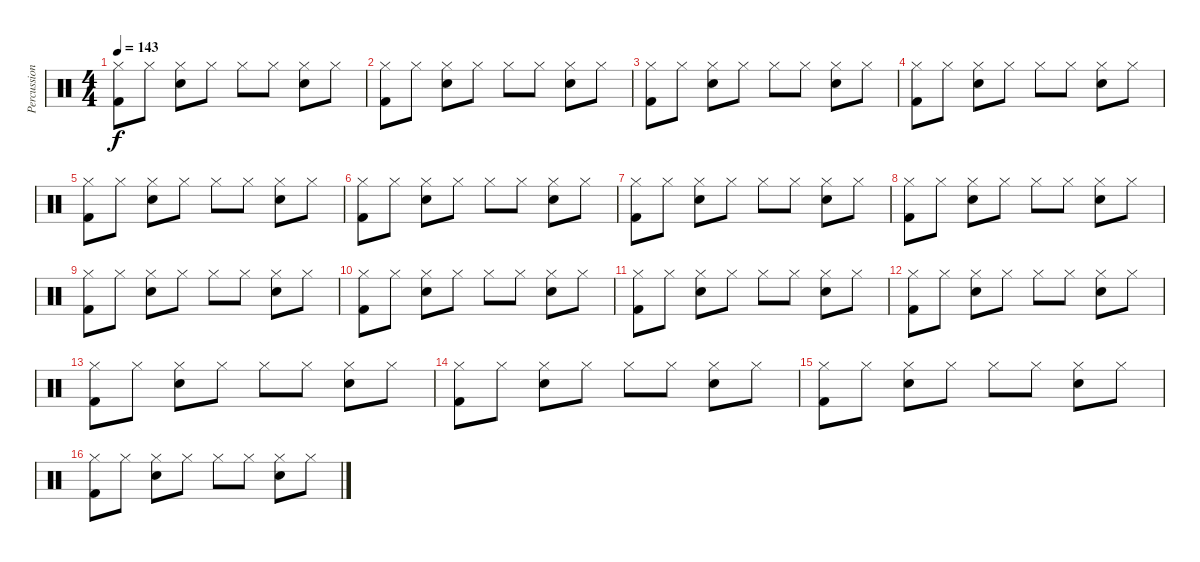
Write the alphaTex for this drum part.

\track ("Percussion" "Percussion") {instrument percussion}
\staff {score}
\articulation defaults
\ts (4 4)
\tempo 143
\clef neutral
\ks c
("Hi-Hat (closed)" "Kick (hit) 2").8{dy f} "Hi-Hat (closed)".8 ("Hi-Hat (closed)" "Electric Snare (hit)").8 "Hi-Hat (closed)".8 "Hi-Hat (closed)".8 "Hi-Hat (closed)".8 ("Hi-Hat (closed)" "Electric Snare (hit)").8 "Hi-Hat (closed)".8 |
("Hi-Hat (closed)" "Kick (hit) 2").8 "Hi-Hat (closed)".8 ("Hi-Hat (closed)" "Electric Snare (hit)").8 "Hi-Hat (closed)".8 "Hi-Hat (closed)".8 "Hi-Hat (closed)".8 ("Hi-Hat (closed)" "Electric Snare (hit)").8 "Hi-Hat (closed)".8 |
("Hi-Hat (closed)" "Kick (hit) 2").8 "Hi-Hat (closed)".8 ("Hi-Hat (closed)" "Electric Snare (hit)").8 "Hi-Hat (closed)".8 "Hi-Hat (closed)".8 "Hi-Hat (closed)".8 ("Hi-Hat (closed)" "Electric Snare (hit)").8 "Hi-Hat (closed)".8 |
("Hi-Hat (closed)" "Kick (hit) 2").8 "Hi-Hat (closed)".8 ("Hi-Hat (closed)" "Electric Snare (hit)").8 "Hi-Hat (closed)".8 "Hi-Hat (closed)".8 "Hi-Hat (closed)".8 ("Hi-Hat (closed)" "Electric Snare (hit)").8 "Hi-Hat (closed)".8 |
("Hi-Hat (closed)" "Kick (hit) 2").8 "Hi-Hat (closed)".8 ("Hi-Hat (closed)" "Electric Snare (hit)").8 "Hi-Hat (closed)".8 "Hi-Hat (closed)".8 "Hi-Hat (closed)".8 ("Hi-Hat (closed)" "Electric Snare (hit)").8 "Hi-Hat (closed)".8 |
("Hi-Hat (closed)" "Kick (hit) 2").8 "Hi-Hat (closed)".8 ("Hi-Hat (closed)" "Electric Snare (hit)").8 "Hi-Hat (closed)".8 "Hi-Hat (closed)".8 "Hi-Hat (closed)".8 ("Hi-Hat (closed)" "Electric Snare (hit)").8 "Hi-Hat (closed)".8 |
("Hi-Hat (closed)" "Kick (hit) 2").8 "Hi-Hat (closed)".8 ("Hi-Hat (closed)" "Electric Snare (hit)").8 "Hi-Hat (closed)".8 "Hi-Hat (closed)".8 "Hi-Hat (closed)".8 ("Hi-Hat (closed)" "Electric Snare (hit)").8 "Hi-Hat (closed)".8 |
("Hi-Hat (closed)" "Kick (hit) 2").8 "Hi-Hat (closed)".8 ("Hi-Hat (closed)" "Electric Snare (hit)").8 "Hi-Hat (closed)".8 "Hi-Hat (closed)".8 "Hi-Hat (closed)".8 ("Hi-Hat (closed)" "Electric Snare (hit)").8 "Hi-Hat (closed)".8 |
("Hi-Hat (closed)" "Kick (hit) 2").8 "Hi-Hat (closed)".8 ("Hi-Hat (closed)" "Electric Snare (hit)").8 "Hi-Hat (closed)".8 "Hi-Hat (closed)".8 "Hi-Hat (closed)".8 ("Hi-Hat (closed)" "Electric Snare (hit)").8 "Hi-Hat (closed)".8 |
("Hi-Hat (closed)" "Kick (hit) 2").8 "Hi-Hat (closed)".8 ("Hi-Hat (closed)" "Electric Snare (hit)").8 "Hi-Hat (closed)".8 "Hi-Hat (closed)".8 "Hi-Hat (closed)".8 ("Hi-Hat (closed)" "Electric Snare (hit)").8 "Hi-Hat (closed)".8 |
("Hi-Hat (closed)" "Kick (hit) 2").8 "Hi-Hat (closed)".8 ("Hi-Hat (closed)" "Electric Snare (hit)").8 "Hi-Hat (closed)".8 "Hi-Hat (closed)".8 "Hi-Hat (closed)".8 ("Hi-Hat (closed)" "Electric Snare (hit)").8 "Hi-Hat (closed)".8 |
("Hi-Hat (closed)" "Kick (hit) 2").8 "Hi-Hat (closed)".8 ("Hi-Hat (closed)" "Electric Snare (hit)").8 "Hi-Hat (closed)".8 "Hi-Hat (closed)".8 "Hi-Hat (closed)".8 ("Hi-Hat (closed)" "Electric Snare (hit)").8 "Hi-Hat (closed)".8 |
("Hi-Hat (closed)" "Kick (hit) 2").8 "Hi-Hat (closed)".8 ("Hi-Hat (closed)" "Electric Snare (hit)").8 "Hi-Hat (closed)".8 "Hi-Hat (closed)".8 "Hi-Hat (closed)".8 ("Hi-Hat (closed)" "Electric Snare (hit)").8 "Hi-Hat (closed)".8 |
("Hi-Hat (closed)" "Kick (hit) 2").8 "Hi-Hat (closed)".8 ("Hi-Hat (closed)" "Electric Snare (hit)").8 "Hi-Hat (closed)".8 "Hi-Hat (closed)".8 "Hi-Hat (closed)".8 ("Hi-Hat (closed)" "Electric Snare (hit)").8 "Hi-Hat (closed)".8 |
("Hi-Hat (closed)" "Kick (hit) 2").8 "Hi-Hat (closed)".8 ("Hi-Hat (closed)" "Electric Snare (hit)").8 "Hi-Hat (closed)".8 "Hi-Hat (closed)".8 "Hi-Hat (closed)".8 ("Hi-Hat (closed)" "Electric Snare (hit)").8 "Hi-Hat (closed)".8 |
("Hi-Hat (closed)" "Kick (hit) 2").8 "Hi-Hat (closed)".8 ("Hi-Hat (closed)" "Electric Snare (hit)").8 "Hi-Hat (closed)".8 "Hi-Hat (closed)".8 "Hi-Hat (closed)".8 ("Hi-Hat (closed)" "Electric Snare (hit)").8 "Hi-Hat (closed)".8
